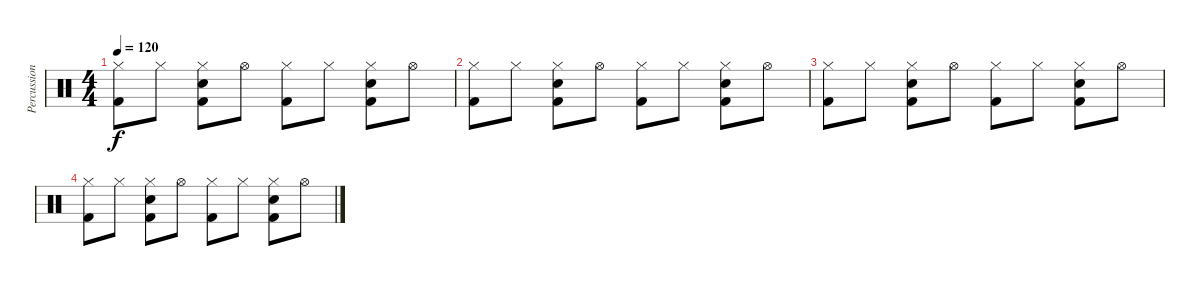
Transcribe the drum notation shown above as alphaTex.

\track ("Percussion" "Percussion") {instrument percussion}
\staff {score}
\articulation defaults
\ts (4 4)
\tempo 120
\clef neutral
\ks c
("Hi-Hat (closed)" "Kick (hit) 2").8{dy f} "Hi-Hat (closed)".8 ("Hi-Hat (closed)" "Snare (hit) 2" "Kick (hit) 2").8 "Hi-Hat (open)".8 ("Hi-Hat (closed)" "Kick (hit) 2").8 "Hi-Hat (closed)".8 ("Hi-Hat (closed)" "Snare (hit) 2" "Kick (hit) 2").8 "Hi-Hat (open)".8 |
("Hi-Hat (closed)" "Kick (hit) 2").8 "Hi-Hat (closed)".8 ("Hi-Hat (closed)" "Snare (hit) 2" "Kick (hit) 2").8 "Hi-Hat (open)".8 ("Hi-Hat (closed)" "Kick (hit) 2").8 "Hi-Hat (closed)".8 ("Hi-Hat (closed)" "Snare (hit) 2" "Kick (hit) 2").8 "Hi-Hat (open)".8 |
("Hi-Hat (closed)" "Kick (hit) 2").8 "Hi-Hat (closed)".8 ("Hi-Hat (closed)" "Snare (hit) 2" "Kick (hit) 2").8 "Hi-Hat (open)".8 ("Hi-Hat (closed)" "Kick (hit) 2").8 "Hi-Hat (closed)".8 ("Hi-Hat (closed)" "Snare (hit) 2" "Kick (hit) 2").8 "Hi-Hat (open)".8 |
("Hi-Hat (closed)" "Kick (hit) 2").8 "Hi-Hat (closed)".8 ("Hi-Hat (closed)" "Snare (hit) 2" "Kick (hit) 2").8 "Hi-Hat (open)".8 ("Hi-Hat (closed)" "Kick (hit) 2").8 "Hi-Hat (closed)".8 ("Hi-Hat (closed)" "Snare (hit) 2" "Kick (hit) 2").8 "Hi-Hat (open)".8
